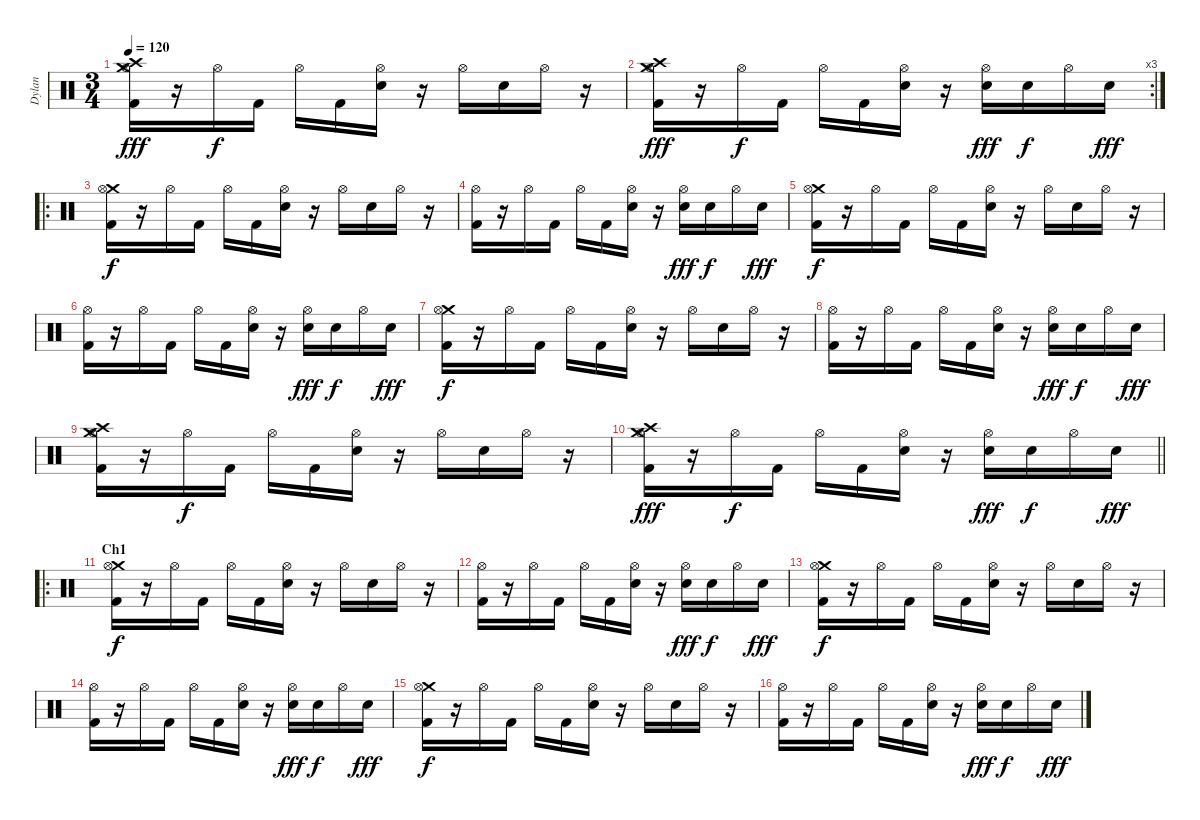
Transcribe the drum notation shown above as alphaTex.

\track ("Dylan" "Dylan") {instrument percussion}
\staff {score}
\articulation defaults
\ts (3 4)
\tempo 120
\clef neutral
\ks c
("Crash high (hit)" "Crash medium (hit)" "Hi-Hat (open)" "Kick (hit) 2").16{dy fff} r.16 "Hi-Hat (open)".16{dy f} "Kick (hit) 2".16 "Hi-Hat (open)".16 "Kick (hit) 2".16 ("Hi-Hat (open)" "Electric Snare (hit)").16 r.16 "Hi-Hat (open)".16 "Electric Snare (hit)".16 "Hi-Hat (open)".16 r.16 |
\rc 3
("Crash medium (hit)" "Crash high (hit)" "Hi-Hat (open)" "Kick (hit) 2").16{dy fff} r.16 "Hi-Hat (open)".16{dy f} "Kick (hit) 2".16 "Hi-Hat (open)".16 "Kick (hit) 2".16 ("Hi-Hat (open)" "Electric Snare (hit)").16 r.16 ("Hi-Hat (open)" "Electric Snare (hit)").16{dy fff} "Electric Snare (hit)".16{dy f} "Hi-Hat (open)".16 "Electric Snare (hit)".16{dy fff} |
\ro
("Crash medium (hit)" "Hi-Hat (open)" "Kick (hit) 2").16{dy f} r.16 "Hi-Hat (open)".16 "Kick (hit) 2".16 "Hi-Hat (open)".16 "Kick (hit) 2".16 ("Hi-Hat (open)" "Electric Snare (hit)").16 r.16 "Hi-Hat (open)".16 "Electric Snare (hit)".16 "Hi-Hat (open)".16 r.16 |
("Hi-Hat (open)" "Kick (hit) 2").16 r.16 "Hi-Hat (open)".16 "Kick (hit) 2".16 "Hi-Hat (open)".16 "Kick (hit) 2".16 ("Hi-Hat (open)" "Electric Snare (hit)").16 r.16 ("Hi-Hat (open)" "Electric Snare (hit)").16{dy fff} "Electric Snare (hit)".16{dy f} "Hi-Hat (open)".16 "Electric Snare (hit)".16{dy fff} |
("Crash medium (hit)" "Hi-Hat (open)" "Kick (hit) 2").16{dy f} r.16 "Hi-Hat (open)".16 "Kick (hit) 2".16 "Hi-Hat (open)".16 "Kick (hit) 2".16 ("Hi-Hat (open)" "Electric Snare (hit)").16 r.16 "Hi-Hat (open)".16 "Electric Snare (hit)".16 "Hi-Hat (open)".16 r.16 |
("Hi-Hat (open)" "Kick (hit) 2").16 r.16 "Hi-Hat (open)".16 "Kick (hit) 2".16 "Hi-Hat (open)".16 "Kick (hit) 2".16 ("Hi-Hat (open)" "Electric Snare (hit)").16 r.16 ("Hi-Hat (open)" "Electric Snare (hit)").16{dy fff} "Electric Snare (hit)".16{dy f} "Hi-Hat (open)".16 "Electric Snare (hit)".16{dy fff} |
("Crash medium (hit)" "Hi-Hat (open)" "Kick (hit) 2").16{dy f} r.16 "Hi-Hat (open)".16 "Kick (hit) 2".16 "Hi-Hat (open)".16 "Kick (hit) 2".16 ("Hi-Hat (open)" "Electric Snare (hit)").16 r.16 "Hi-Hat (open)".16 "Electric Snare (hit)".16 "Hi-Hat (open)".16 r.16 |
("Hi-Hat (open)" "Kick (hit) 2").16 r.16 "Hi-Hat (open)".16 "Kick (hit) 2".16 "Hi-Hat (open)".16 "Kick (hit) 2".16 ("Hi-Hat (open)" "Electric Snare (hit)").16 r.16 ("Hi-Hat (open)" "Electric Snare (hit)").16{dy fff} "Electric Snare (hit)".16{dy f} "Hi-Hat (open)".16 "Electric Snare (hit)".16{dy fff} |
("Crash high (hit)" "Crash medium (hit)" "Hi-Hat (open)" "Kick (hit) 2").16 r.16 "Hi-Hat (open)".16{dy f} "Kick (hit) 2".16 "Hi-Hat (open)".16 "Kick (hit) 2".16 ("Hi-Hat (open)" "Electric Snare (hit)").16 r.16 "Hi-Hat (open)".16 "Electric Snare (hit)".16 "Hi-Hat (open)".16 r.16 |
\barLineRight lightlight
("Crash medium (hit)" "Crash high (hit)" "Hi-Hat (open)" "Kick (hit) 2").16{dy fff} r.16 "Hi-Hat (open)".16{dy f} "Kick (hit) 2".16 "Hi-Hat (open)".16 "Kick (hit) 2".16 ("Hi-Hat (open)" "Electric Snare (hit)").16 r.16 ("Hi-Hat (open)" "Electric Snare (hit)").16{dy fff} "Electric Snare (hit)".16{dy f} "Hi-Hat (open)".16 "Electric Snare (hit)".16{dy fff} |
\ro
\section ("" "Ch1")
("Crash medium (hit)" "Hi-Hat (open)" "Kick (hit) 2").16{dy f} r.16 "Hi-Hat (open)".16 "Kick (hit) 2".16 "Hi-Hat (open)".16 "Kick (hit) 2".16 ("Hi-Hat (open)" "Electric Snare (hit)").16 r.16 "Hi-Hat (open)".16 "Electric Snare (hit)".16 "Hi-Hat (open)".16 r.16 |
("Hi-Hat (open)" "Kick (hit) 2").16 r.16 "Hi-Hat (open)".16 "Kick (hit) 2".16 "Hi-Hat (open)".16 "Kick (hit) 2".16 ("Hi-Hat (open)" "Electric Snare (hit)").16 r.16 ("Hi-Hat (open)" "Electric Snare (hit)").16{dy fff} "Electric Snare (hit)".16{dy f} "Hi-Hat (open)".16 "Electric Snare (hit)".16{dy fff} |
("Crash medium (hit)" "Hi-Hat (open)" "Kick (hit) 2").16{dy f} r.16 "Hi-Hat (open)".16 "Kick (hit) 2".16 "Hi-Hat (open)".16 "Kick (hit) 2".16 ("Hi-Hat (open)" "Electric Snare (hit)").16 r.16 "Hi-Hat (open)".16 "Electric Snare (hit)".16 "Hi-Hat (open)".16 r.16 |
("Hi-Hat (open)" "Kick (hit) 2").16 r.16 "Hi-Hat (open)".16 "Kick (hit) 2".16 "Hi-Hat (open)".16 "Kick (hit) 2".16 ("Hi-Hat (open)" "Electric Snare (hit)").16 r.16 ("Hi-Hat (open)" "Electric Snare (hit)").16{dy fff} "Electric Snare (hit)".16{dy f} "Hi-Hat (open)".16 "Electric Snare (hit)".16{dy fff} |
("Crash medium (hit)" "Hi-Hat (open)" "Kick (hit) 2").16{dy f} r.16 "Hi-Hat (open)".16 "Kick (hit) 2".16 "Hi-Hat (open)".16 "Kick (hit) 2".16 ("Hi-Hat (open)" "Electric Snare (hit)").16 r.16 "Hi-Hat (open)".16 "Electric Snare (hit)".16 "Hi-Hat (open)".16 r.16 |
("Hi-Hat (open)" "Kick (hit) 2").16 r.16 "Hi-Hat (open)".16 "Kick (hit) 2".16 "Hi-Hat (open)".16 "Kick (hit) 2".16 ("Hi-Hat (open)" "Electric Snare (hit)").16 r.16 ("Hi-Hat (open)" "Electric Snare (hit)").16{dy fff} "Electric Snare (hit)".16{dy f} "Hi-Hat (open)".16 "Electric Snare (hit)".16{dy fff}
